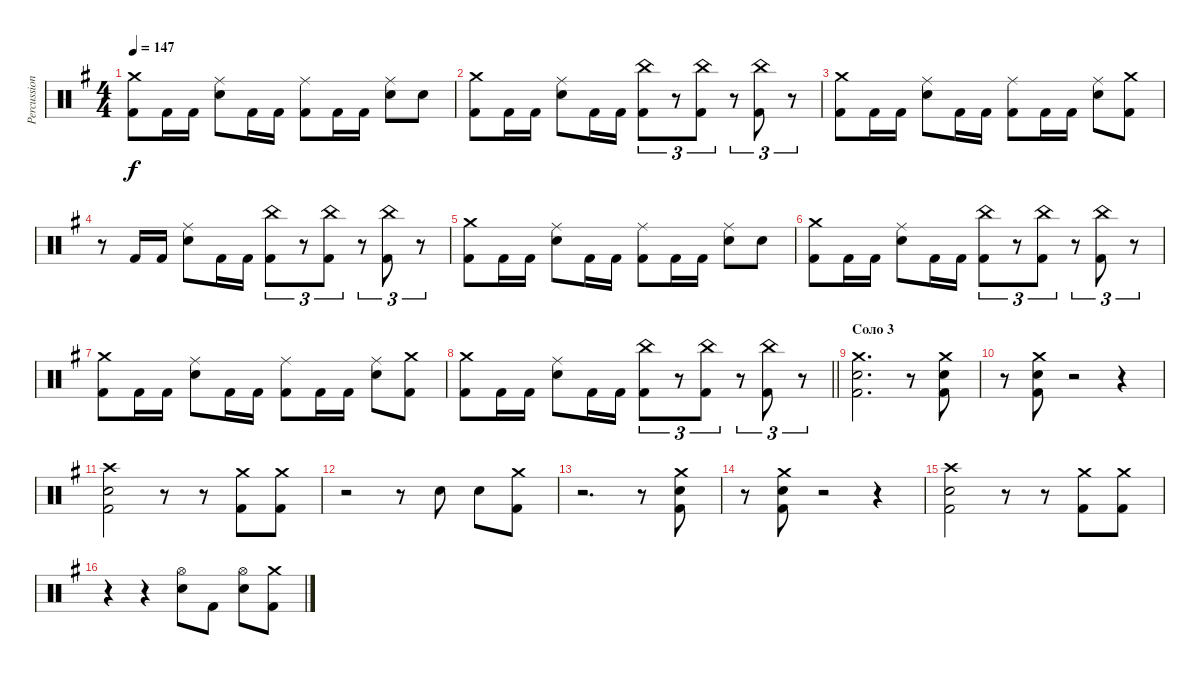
\track ("Percussion" "Percussion") {instrument percussion}
\staff {score}
\articulation defaults
\ts (4 4)
\tempo 147
\clef neutral
\ks eminor
("Crash medium (hit)" "Kick (hit) 2").8{dy f} "Kick (hit) 2".16 "Kick (hit) 2".16 ("Ride (middle)" "Snare (hit) 2").8 "Kick (hit) 2".16 "Kick (hit) 2".16 ("Ride (middle)" "Kick (hit) 2").8 "Kick (hit) 2".16 "Kick (hit) 2".16 ("Ride (middle)" "Snare (hit) 2").8 "Snare (hit) 2".8 |
("Crash medium (hit)" "Kick (hit) 2").8 "Kick (hit) 2".16 "Kick (hit) 2".16 ("Ride (middle)" "Snare (hit) 2").8 "Kick (hit) 2".16 "Kick (hit) 2".16 ("China (hit)" "Kick (hit) 2").8{tu (3 2)} r.8{tu (3 2)} ("China (hit)" "Kick (hit) 2").8{tu (3 2)} r.8{tu (3 2)} ("China (hit)" "Kick (hit) 2").8{tu (3 2)} r.8{tu (3 2)} |
("Crash medium (hit)" "Kick (hit) 2").8 "Kick (hit) 2".16 "Kick (hit) 2".16 ("Ride (middle)" "Snare (hit) 2").8 "Kick (hit) 2".16 "Kick (hit) 2".16 ("Ride (middle)" "Kick (hit) 2").8 "Kick (hit) 2".16 "Kick (hit) 2".16 ("Ride (middle)" "Snare (hit) 2").8 ("Crash medium (hit)" "Kick (hit) 2").8 |
r.8 "Kick (hit) 2".16 "Kick (hit) 2".16 ("Ride (middle)" "Snare (hit) 2").8 "Kick (hit) 2".16 "Kick (hit) 2".16 ("China (hit)" "Kick (hit) 2").8{tu (3 2)} r.8{tu (3 2)} ("China (hit)" "Kick (hit) 2").8{tu (3 2)} r.8{tu (3 2)} ("China (hit)" "Kick (hit) 2").8{tu (3 2)} r.8{tu (3 2)} |
("Crash medium (hit)" "Kick (hit) 2").8 "Kick (hit) 2".16 "Kick (hit) 2".16 ("Ride (middle)" "Snare (hit) 2").8 "Kick (hit) 2".16 "Kick (hit) 2".16 ("Ride (middle)" "Kick (hit) 2").8 "Kick (hit) 2".16 "Kick (hit) 2".16 ("Ride (middle)" "Snare (hit) 2").8 "Snare (hit) 2".8 |
("Crash medium (hit)" "Kick (hit) 2").8 "Kick (hit) 2".16 "Kick (hit) 2".16 ("Ride (middle)" "Snare (hit) 2").8 "Kick (hit) 2".16 "Kick (hit) 2".16 ("China (hit)" "Kick (hit) 2").8{tu (3 2)} r.8{tu (3 2)} ("China (hit)" "Kick (hit) 2").8{tu (3 2)} r.8{tu (3 2)} ("China (hit)" "Kick (hit) 2").8{tu (3 2)} r.8{tu (3 2)} |
("Crash medium (hit)" "Kick (hit) 2").8 "Kick (hit) 2".16 "Kick (hit) 2".16 ("Ride (middle)" "Snare (hit) 2").8 "Kick (hit) 2".16 "Kick (hit) 2".16 ("Ride (middle)" "Kick (hit) 2").8 "Kick (hit) 2".16 "Kick (hit) 2".16 ("Ride (middle)" "Snare (hit) 2").8 ("Crash medium (hit)" "Kick (hit) 2").8 |
\barLineRight lightlight
("Crash medium (hit)" "Kick (hit) 2").8 "Kick (hit) 2".16 "Kick (hit) 2".16 ("Ride (middle)" "Snare (hit) 2").8 "Kick (hit) 2".16 "Kick (hit) 2".16 ("China (hit)" "Kick (hit) 2").8{tu (3 2)} r.8{tu (3 2)} ("China (hit)" "Kick (hit) 2").8{tu (3 2)} r.8{tu (3 2)} ("China (hit)" "Kick (hit) 2").8{tu (3 2)} r.8{tu (3 2)} |
\section ("" "Соло 3")
("Crash medium (hit)" "Electric Snare (hit)" "Kick (hit) 2").2{d} r.8 ("Crash medium (hit)" "Electric Snare (hit)" "Kick (hit) 2").8 |
r.8 ("Crash medium (hit)" "Electric Snare (hit)" "Kick (hit) 2").8 r.2 r.4 |
("Crash high (hit)" "Electric Snare (hit)" "Kick (hit) 2").2 r.8 r.8 ("Crash medium (hit)" "Kick (hit) 2").8 ("Crash medium (hit)" "Kick (hit) 2").8 |
r.2 r.8 "Snare (hit) 2".8 "Snare (hit) 2".8 ("Crash medium (hit)" "Kick (hit) 2").8 |
r.2{d} r.8 ("Crash medium (hit)" "Electric Snare (hit)" "Kick (hit) 2").8 |
r.8 ("Crash medium (hit)" "Electric Snare (hit)" "Kick (hit) 2").8 r.2 r.4 |
("Crash high (hit)" "Electric Snare (hit)" "Kick (hit) 2").2 r.8 r.8 ("Crash medium (hit)" "Kick (hit) 2").8 ("Crash medium (hit)" "Kick (hit) 2").8 |
r.4 r.4 ("Hi-Hat (open)" "Snare (hit) 2").8 "Kick (hit) 2".8 ("Hi-Hat (open)" "Snare (hit) 2").8 ("Crash medium (hit)" "Kick (hit) 2").8
